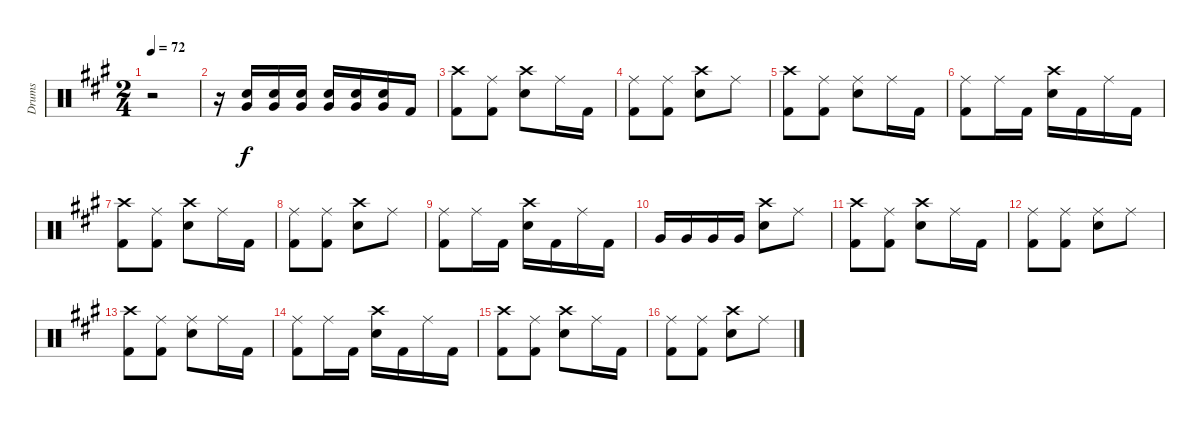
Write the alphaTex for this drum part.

\track ("Drums" "Drums") {instrument percussion}
\staff {score}
\articulation defaults
\ts (2 4)
\tempo 72
\clef neutral
\ks a
r.2{dy f} |
r.16 ("Snare (hit) 2" "Very Low Tom (hit)").16 ("Snare (hit) 2" "Very Low Tom (hit)").16 ("Snare (hit) 2" "Very Low Tom (hit)").16 ("Snare (hit) 2" "Very Low Tom (hit)").16 ("Snare (hit) 2" "Very Low Tom (hit)").16 ("Snare (hit) 2" "Very Low Tom (hit)").16 "Kick (hit) 2".16 |
("Crash high (hit)" "Kick (hit) 2").8 ("Ride (middle)" "Kick (hit) 2").8 ("Crash high (hit)" "Snare (hit) 2").8 "Ride (middle)".16 "Kick (hit) 2".16 |
("Ride (middle)" "Kick (hit) 2").8 ("Ride (middle)" "Kick (hit) 2").8 ("Crash high (hit)" "Snare (hit) 2").8 "Ride (middle)".8 |
("Crash high (hit)" "Kick (hit) 2").8 ("Ride (middle)" "Kick (hit) 2").8 ("Ride (middle)" "Snare (hit) 2").8 "Ride (middle)".16 "Kick (hit) 2".16 |
("Ride (middle)" "Kick (hit) 2").8 "Ride (middle)".16 "Kick (hit) 2".16 ("Crash high (hit)" "Snare (hit) 2").16 "Kick (hit) 2".16 "Ride (middle)".16 "Kick (hit) 2".16 |
("Crash high (hit)" "Kick (hit) 2").8 ("Ride (middle)" "Kick (hit) 2").8 ("Crash high (hit)" "Snare (hit) 2").8 "Ride (middle)".16 "Kick (hit) 2".16 |
("Ride (middle)" "Kick (hit) 2").8 ("Ride (middle)" "Kick (hit) 2").8 ("Crash high (hit)" "Snare (hit) 2").8 "Ride (middle)".8 |
("Ride (middle)" "Kick (hit) 2").8 "Ride (middle)".16 "Kick (hit) 2".16 ("Crash high (hit)" "Snare (hit) 2").16 "Kick (hit) 2".16 "Ride (middle)".16 "Kick (hit) 2".16 |
"Very Low Tom (hit)".16 "Very Low Tom (hit)".16 "Very Low Tom (hit)".16 "Very Low Tom (hit)".16 ("Crash high (hit)" "Snare (hit) 2").8 "Ride (middle)".8 |
("Crash high (hit)" "Kick (hit) 2").8 ("Ride (middle)" "Kick (hit) 2").8 ("Crash high (hit)" "Snare (hit) 2").8 "Ride (middle)".16 "Kick (hit) 2".16 |
("Ride (middle)" "Kick (hit) 2").8 ("Ride (middle)" "Kick (hit) 2").8 ("Ride (middle)" "Snare (hit) 2").8 "Ride (middle)".8 |
("Crash high (hit)" "Kick (hit) 2").8 ("Ride (middle)" "Kick (hit) 2").8 ("Ride (middle)" "Snare (hit) 2").8 "Ride (middle)".16 "Kick (hit) 2".16 |
("Ride (middle)" "Kick (hit) 2").8 "Ride (middle)".16 "Kick (hit) 2".16 ("Crash high (hit)" "Snare (hit) 2").16 "Kick (hit) 2".16 "Ride (middle)".16 "Kick (hit) 2".16 |
("Crash high (hit)" "Kick (hit) 2").8 ("Ride (middle)" "Kick (hit) 2").8 ("Crash high (hit)" "Snare (hit) 2").8 "Ride (middle)".16 "Kick (hit) 2".16 |
("Ride (middle)" "Kick (hit) 2").8 ("Ride (middle)" "Kick (hit) 2").8 ("Crash high (hit)" "Snare (hit) 2").8 "Ride (middle)".8
